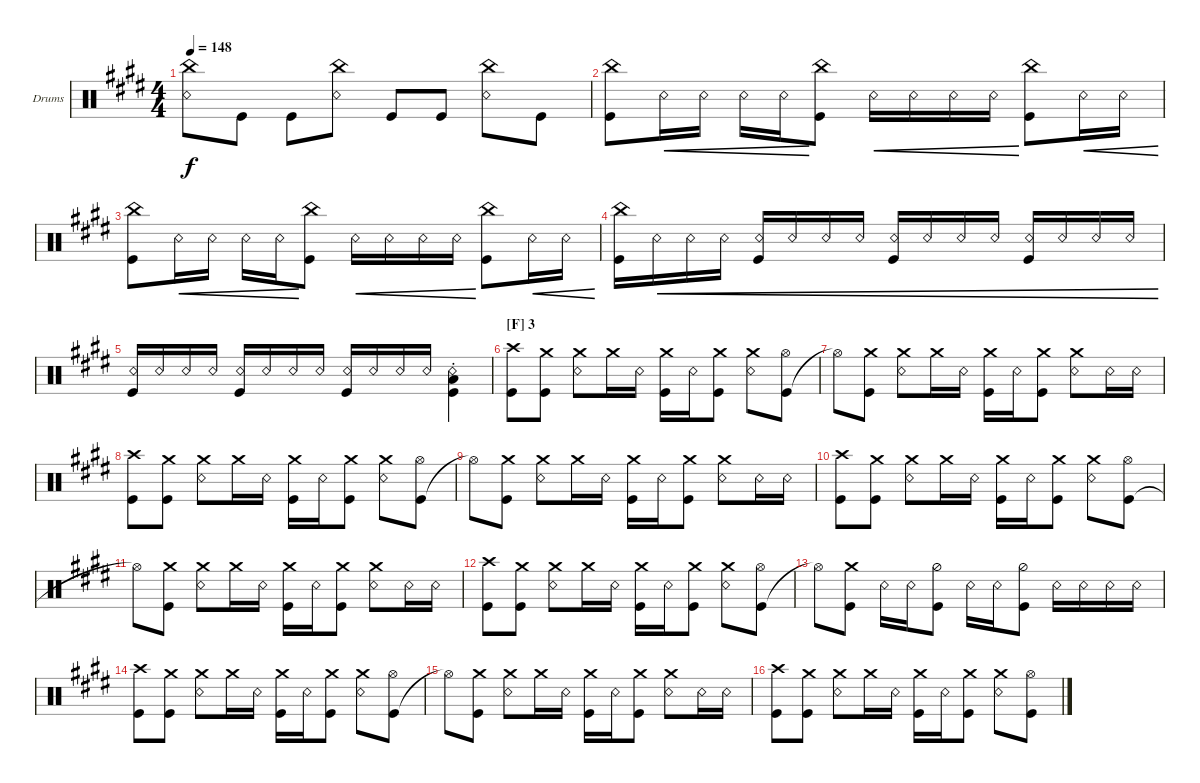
\bracketExtendMode groupsimilarinstruments
\firstSystemTrackNameOrientation horizontal
\otherSystemsTrackNameOrientation horizontal
\track ("Ichigo" "Drums") {instrument percussion}
\staff {score}
\articulation defaults
\ts (4 4)
\tempo 148
\clef neutral
\ks e
("China (hit)" "Snare (rim shot)").8{dy f} "Kick (hit)".8 "Kick (hit)".8 ("Snare (rim shot)" "China (hit)").8 "Kick (hit)".8 "Kick (hit)".8 ("Snare (rim shot)" "China (hit)").8 "Kick (hit)".8 |
("China (hit)" "Kick (hit)").8 "Snare (rim shot)".16{cre} "Snare (rim shot)".16{cre} "Snare (rim shot)".16{cre} "Snare (rim shot)".16{cre} ("China (hit)" "Kick (hit)").8 "Snare (rim shot)".16{cre} "Snare (rim shot)".16{cre} "Snare (rim shot)".16{cre} "Snare (rim shot)".16{cre} ("China (hit)" "Kick (hit)").8 "Snare (rim shot)".16{cre} "Snare (rim shot)".16{cre} |
("China (hit)" "Kick (hit)").8 "Snare (rim shot)".16{cre} "Snare (rim shot)".16{cre} "Snare (rim shot)".16{cre} "Snare (rim shot)".16{cre} ("China (hit)" "Kick (hit)").8 "Snare (rim shot)".16{cre} "Snare (rim shot)".16{cre} "Snare (rim shot)".16{cre} "Snare (rim shot)".16{cre} ("China (hit)" "Kick (hit)").8 "Snare (rim shot)".16{cre} "Snare (rim shot)".16{cre} |
("China (hit)" "Kick (hit)").16 "Snare (rim shot)".16{cre} "Snare (rim shot)".16{cre} "Snare (rim shot)".16{cre} ("Snare (rim shot)" "Kick (hit)").16{cre} "Snare (rim shot)".16{cre} "Snare (rim shot)".16{cre} "Snare (rim shot)".16{cre} ("Snare (rim shot)" "Kick (hit)").16{cre} "Snare (rim shot)".16{cre} "Snare (rim shot)".16{cre} "Snare (rim shot)".16{cre} ("Snare (rim shot)" "Kick (hit)").16{cre} "Snare (rim shot)".16{cre} "Snare (rim shot)".16{cre} "Snare (rim shot)".16{cre} |
("Snare (rim shot)" "Kick (hit)").16 "Snare (rim shot)".16 "Snare (rim shot)".16 "Snare (rim shot)".16 ("Snare (rim shot)" "Kick (hit)").16 "Snare (rim shot)".16 "Snare (rim shot)".16 "Snare (rim shot)".16 ("Snare (rim shot)" "Kick (hit)").16 "Snare (rim shot)".16 "Snare (rim shot)".16 "Snare (rim shot)".16 ("Snare (rim shot)"{st} "Low Tom (hit)"{st} "Kick (hit)").4 |
\section ("F" "3")
("Kick (hit)" "Crash high (hit)").8 ("Kick (hit)" "Crash medium (hit)").8 ("Snare (rim shot)" "Crash medium (hit)").8 "Crash medium (hit)".16 "Snare (rim shot)".16 ("Kick (hit)" "Crash medium (hit)").16 "Snare (rim shot)".16 ("Kick (hit)" "Crash medium (hit)").8 ("Snare (rim shot)" "Crash medium (hit)").8 ("Kick (hit)" "Hi-Hat (open)").8 |
"Hi-Hat (open)"{t}.8 ("Kick (hit)" "Crash medium (hit)").8 ("Snare (rim shot)" "Crash medium (hit)").8 "Crash medium (hit)".16 "Snare (rim shot)".16 ("Kick (hit)" "Crash medium (hit)").16 "Snare (rim shot)".16 ("Kick (hit)" "Crash medium (hit)").8 ("Snare (rim shot)" "Crash medium (hit)").8 "Snare (rim shot)".16 "Snare (rim shot)".16 |
("Kick (hit)" "Crash high (hit)").8 ("Kick (hit)" "Crash medium (hit)").8 ("Snare (rim shot)" "Crash medium (hit)").8 "Crash medium (hit)".16 "Snare (rim shot)".16 ("Kick (hit)" "Crash medium (hit)").16 "Snare (rim shot)".16 ("Kick (hit)" "Crash medium (hit)").8 ("Snare (rim shot)" "Crash medium (hit)").8 ("Kick (hit)" "Hi-Hat (open)").8 |
"Hi-Hat (open)"{t}.8 ("Kick (hit)" "Crash medium (hit)").8 ("Snare (rim shot)" "Crash medium (hit)").8 "Crash medium (hit)".16 "Snare (rim shot)".16 ("Kick (hit)" "Crash medium (hit)").16 "Snare (rim shot)".16 ("Kick (hit)" "Crash medium (hit)").8 ("Snare (rim shot)" "Crash medium (hit)").8 "Snare (rim shot)".16 "Snare (rim shot)".16 |
("Kick (hit)" "Crash high (hit)").8 ("Kick (hit)" "Crash medium (hit)").8 ("Snare (rim shot)" "Crash medium (hit)").8 "Crash medium (hit)".16 "Snare (rim shot)".16 ("Kick (hit)" "Crash medium (hit)").16 "Snare (rim shot)".16 ("Kick (hit)" "Crash medium (hit)").8 ("Snare (rim shot)" "Crash medium (hit)").8 ("Kick (hit)" "Hi-Hat (open)").8 |
"Hi-Hat (open)"{t}.8 ("Kick (hit)" "Crash medium (hit)").8 ("Snare (rim shot)" "Crash medium (hit)").8 "Crash medium (hit)".16 "Snare (rim shot)".16 ("Kick (hit)" "Crash medium (hit)").16 "Snare (rim shot)".16 ("Kick (hit)" "Crash medium (hit)").8 ("Snare (rim shot)" "Crash medium (hit)").8 "Snare (rim shot)".16 "Snare (rim shot)".16 |
("Kick (hit)" "Crash high (hit)").8 ("Kick (hit)" "Crash medium (hit)").8 ("Snare (rim shot)" "Crash medium (hit)").8 "Crash medium (hit)".16 "Snare (rim shot)".16 ("Kick (hit)" "Crash medium (hit)").16 "Snare (rim shot)".16 ("Kick (hit)" "Crash medium (hit)").8 ("Snare (rim shot)" "Crash medium (hit)").8 ("Kick (hit)" "Hi-Hat (open)").8 |
"Hi-Hat (open)"{t}.8 ("Kick (hit)" "Crash medium (hit)").8 "Snare (rim shot)".16 "Snare (rim shot)".16 ("Kick (hit)" "Hi-Hat (half)").8 "Snare (rim shot)".16 "Snare (rim shot)".16 ("Kick (hit)" "Hi-Hat (half)").8 "Snare (rim shot)".16 "Snare (rim shot)".16 "Snare (rim shot)".16 "Snare (rim shot)".16 |
("Kick (hit)" "Crash high (hit)").8 ("Kick (hit)" "Crash medium (hit)").8 ("Snare (rim shot)" "Crash medium (hit)").8 "Crash medium (hit)".16 "Snare (rim shot)".16 ("Kick (hit)" "Crash medium (hit)").16 "Snare (rim shot)".16 ("Kick (hit)" "Crash medium (hit)").8 ("Snare (rim shot)" "Crash medium (hit)").8 ("Kick (hit)" "Hi-Hat (open)").8 |
"Hi-Hat (open)"{t}.8 ("Kick (hit)" "Crash medium (hit)").8 ("Snare (rim shot)" "Crash medium (hit)").8 "Crash medium (hit)".16 "Snare (rim shot)".16 ("Kick (hit)" "Crash medium (hit)").16 "Snare (rim shot)".16 ("Kick (hit)" "Crash medium (hit)").8 ("Snare (rim shot)" "Crash medium (hit)").8 "Snare (rim shot)".16 "Snare (rim shot)".16 |
("Kick (hit)" "Crash high (hit)").8 ("Kick (hit)" "Crash medium (hit)").8 ("Snare (rim shot)" "Crash medium (hit)").8 "Crash medium (hit)".16 "Snare (rim shot)".16 ("Kick (hit)" "Crash medium (hit)").16 "Snare (rim shot)".16 ("Kick (hit)" "Crash medium (hit)").8 ("Snare (rim shot)" "Crash medium (hit)").8 ("Kick (hit)" "Hi-Hat (open)").8
